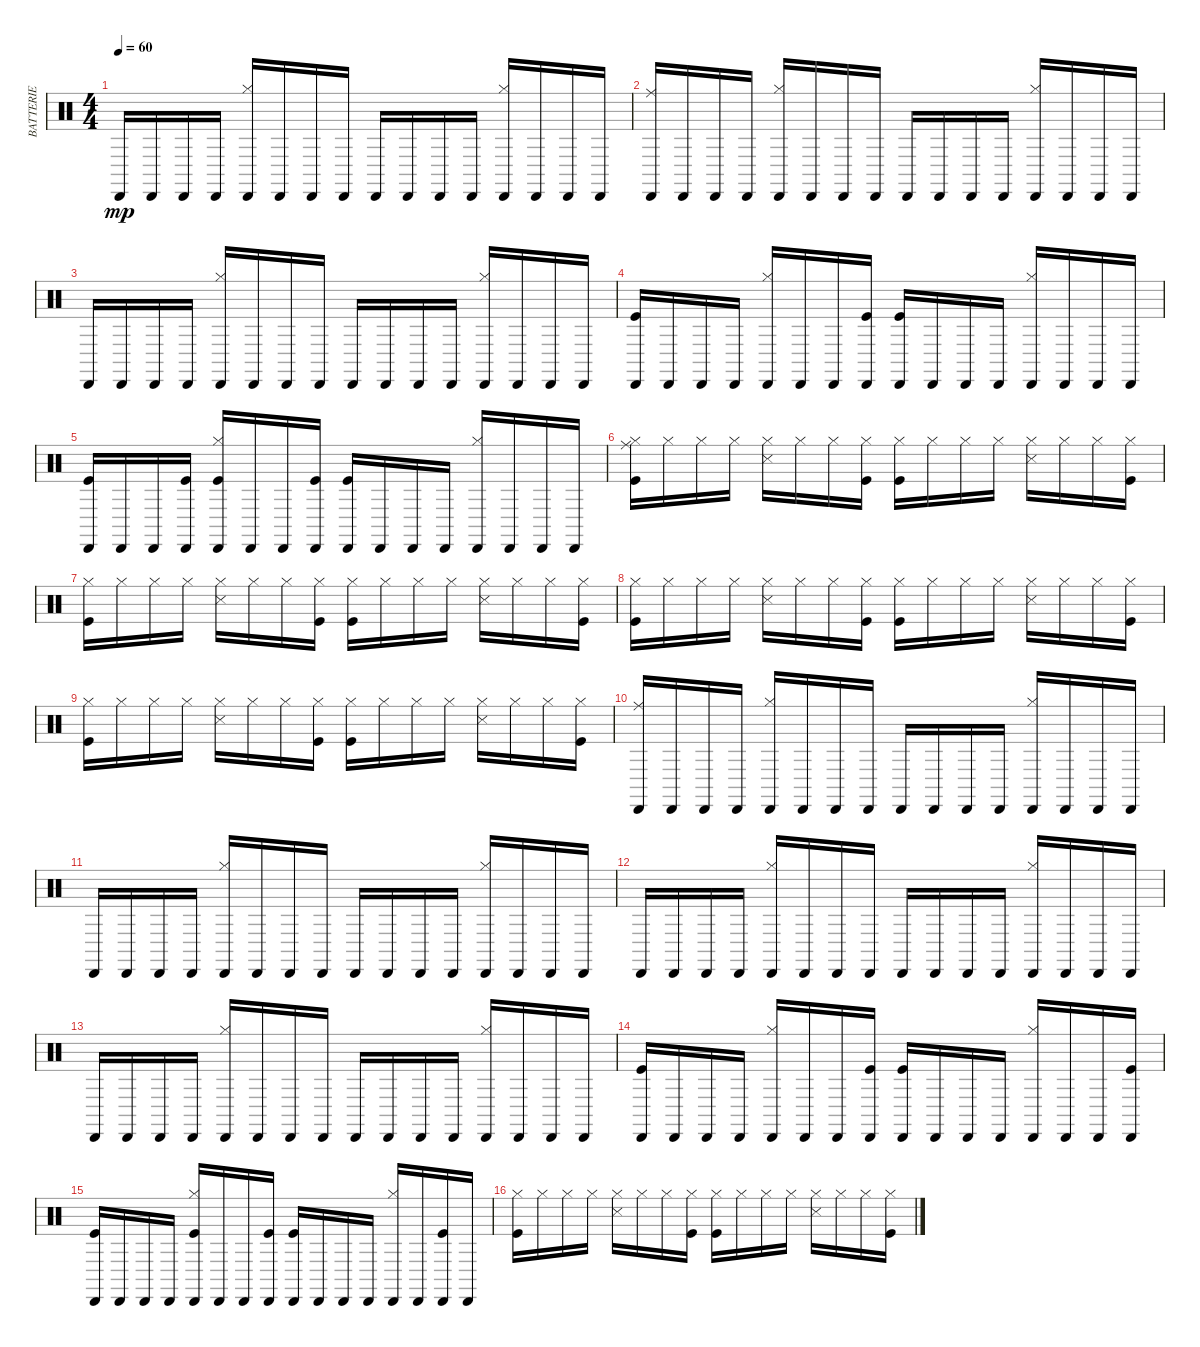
\track ("BATTERIE" "BATTERIE") {instrument percussion}
\staff {score}
\articulation defaults
\ts (4 4)
\tempo 60
\clef neutral
\ks c "Cabasa (hit)".16{dy mp} "Cabasa (hit)".16 "Cabasa (hit)".16 "Cabasa (hit)".16
("Hi-Hat (closed)" "Cabasa (hit)").16 "Cabasa (hit)".16 "Cabasa (hit)".16 "Cabasa (hit)".16 "Cabasa (hit)".16 "Cabasa (hit)".16 "Cabasa (hit)".16 "Cabasa (hit)".16 ("Hi-Hat (closed)" "Cabasa (hit)").16 "Cabasa (hit)".16 "Cabasa (hit)".16 "Cabasa (hit)".16 |
("Cabasa (hit)" "Ride (middle)").16 "Cabasa (hit)".16 "Cabasa (hit)".16 "Cabasa (hit)".16 ("Hi-Hat (closed)" "Cabasa (hit)").16 "Cabasa (hit)".16 "Cabasa (hit)".16 "Cabasa (hit)".16 "Cabasa (hit)".16 "Cabasa (hit)".16 "Cabasa (hit)".16 "Cabasa (hit)".16 ("Hi-Hat (closed)" "Cabasa (hit)").16 "Cabasa (hit)".16 "Cabasa (hit)".16 "Cabasa (hit)".16 |
"Cabasa (hit)".16 "Cabasa (hit)".16 "Cabasa (hit)".16 "Cabasa (hit)".16 ("Hi-Hat (closed)" "Cabasa (hit)").16 "Cabasa (hit)".16 "Cabasa (hit)".16 "Cabasa (hit)".16 "Cabasa (hit)".16 "Cabasa (hit)".16 "Cabasa (hit)".16 "Cabasa (hit)".16 ("Hi-Hat (closed)" "Cabasa (hit)").16 "Cabasa (hit)".16 "Cabasa (hit)".16 "Cabasa (hit)".16 |
("Cabasa (hit)" "Kick (hit)").16 "Cabasa (hit)".16 "Cabasa (hit)".16 "Cabasa (hit)".16 ("Hi-Hat (closed)" "Cabasa (hit)").16 "Cabasa (hit)".16 "Cabasa (hit)".16 ("Cabasa (hit)" "Kick (hit)").16 ("Cabasa (hit)" "Kick (hit)").16 "Cabasa (hit)".16 "Cabasa (hit)".16 "Cabasa (hit)".16 ("Hi-Hat (closed)" "Cabasa (hit)").16 "Cabasa (hit)".16 "Cabasa (hit)".16 "Cabasa (hit)".16 |
("Cabasa (hit)" "Kick (hit)").16 "Cabasa (hit)".16 "Cabasa (hit)".16 ("Cabasa (hit)" "Kick (hit)").16 ("Hi-Hat (closed)" "Cabasa (hit)" "Kick (hit)").16 "Cabasa (hit)".16 "Cabasa (hit)".16 ("Cabasa (hit)" "Kick (hit)").16 ("Cabasa (hit)" "Kick (hit)").16 "Cabasa (hit)".16 "Cabasa (hit)".16 "Cabasa (hit)".16 ("Hi-Hat (closed)" "Cabasa (hit)").16 "Cabasa (hit)".16 "Cabasa (hit)".16 "Cabasa (hit)".16 |
("Hi-Hat (closed)" "Kick (hit)" "Ride (middle)").16 "Hi-Hat (closed)".16 "Hi-Hat (closed)".16 "Hi-Hat (closed)".16 ("Hi-Hat (closed)" "Snare (side stick) 3").16 "Hi-Hat (closed)".16 "Hi-Hat (closed)".16 ("Hi-Hat (closed)" "Kick (hit)").16 ("Hi-Hat (closed)" "Kick (hit)").16 "Hi-Hat (closed)".16 "Hi-Hat (closed)".16 "Hi-Hat (closed)".16 ("Hi-Hat (closed)" "Snare (side stick) 3").16 "Hi-Hat (closed)".16 "Hi-Hat (closed)".16 ("Hi-Hat (closed)" "Kick (hit)").16 |
("Hi-Hat (closed)" "Kick (hit)").16 "Hi-Hat (closed)".16 "Hi-Hat (closed)".16 "Hi-Hat (closed)".16 ("Hi-Hat (closed)" "Snare (side stick) 3").16 "Hi-Hat (closed)".16 "Hi-Hat (closed)".16 ("Hi-Hat (closed)" "Kick (hit)").16 ("Hi-Hat (closed)" "Kick (hit)").16 "Hi-Hat (closed)".16 "Hi-Hat (closed)".16 "Hi-Hat (closed)".16 ("Hi-Hat (closed)" "Snare (side stick) 3").16 "Hi-Hat (closed)".16 "Hi-Hat (closed)".16 ("Hi-Hat (closed)" "Kick (hit)").16 |
("Hi-Hat (closed)" "Kick (hit)").16 "Hi-Hat (closed)".16 "Hi-Hat (closed)".16 "Hi-Hat (closed)".16 ("Hi-Hat (closed)" "Snare (side stick) 3").16 "Hi-Hat (closed)".16 "Hi-Hat (closed)".16 ("Hi-Hat (closed)" "Kick (hit)").16 ("Hi-Hat (closed)" "Kick (hit)").16 "Hi-Hat (closed)".16 "Hi-Hat (closed)".16 "Hi-Hat (closed)".16 ("Hi-Hat (closed)" "Snare (side stick) 3").16 "Hi-Hat (closed)".16 "Hi-Hat (closed)".16 ("Hi-Hat (closed)" "Kick (hit)").16 |
("Hi-Hat (closed)" "Kick (hit)").16 "Hi-Hat (closed)".16 "Hi-Hat (closed)".16 "Hi-Hat (closed)".16 ("Hi-Hat (closed)" "Snare (side stick) 3").16 "Hi-Hat (closed)".16 "Hi-Hat (closed)".16 ("Hi-Hat (closed)" "Kick (hit)").16 ("Hi-Hat (closed)" "Kick (hit)").16 "Hi-Hat (closed)".16 "Hi-Hat (closed)".16 "Hi-Hat (closed)".16 ("Hi-Hat (closed)" "Snare (side stick) 3").16 "Hi-Hat (closed)".16 "Hi-Hat (closed)".16 ("Hi-Hat (closed)" "Kick (hit)").16 |
("Cabasa (hit)" "Ride (middle)").16 "Cabasa (hit)".16 "Cabasa (hit)".16 "Cabasa (hit)".16 ("Hi-Hat (closed)" "Cabasa (hit)").16 "Cabasa (hit)".16 "Cabasa (hit)".16 "Cabasa (hit)".16 "Cabasa (hit)".16 "Cabasa (hit)".16 "Cabasa (hit)".16 "Cabasa (hit)".16 ("Hi-Hat (closed)" "Cabasa (hit)").16 "Cabasa (hit)".16 "Cabasa (hit)".16 "Cabasa (hit)".16 |
"Cabasa (hit)".16 "Cabasa (hit)".16 "Cabasa (hit)".16 "Cabasa (hit)".16 ("Hi-Hat (closed)" "Cabasa (hit)").16 "Cabasa (hit)".16 "Cabasa (hit)".16 "Cabasa (hit)".16 "Cabasa (hit)".16 "Cabasa (hit)".16 "Cabasa (hit)".16 "Cabasa (hit)".16 ("Hi-Hat (closed)" "Cabasa (hit)").16 "Cabasa (hit)".16 "Cabasa (hit)".16 "Cabasa (hit)".16 |
"Cabasa (hit)".16 "Cabasa (hit)".16 "Cabasa (hit)".16 "Cabasa (hit)".16 ("Hi-Hat (closed)" "Cabasa (hit)").16 "Cabasa (hit)".16 "Cabasa (hit)".16 "Cabasa (hit)".16 "Cabasa (hit)".16 "Cabasa (hit)".16 "Cabasa (hit)".16 "Cabasa (hit)".16 ("Hi-Hat (closed)" "Cabasa (hit)").16 "Cabasa (hit)".16 "Cabasa (hit)".16 "Cabasa (hit)".16 |
"Cabasa (hit)".16 "Cabasa (hit)".16 "Cabasa (hit)".16 "Cabasa (hit)".16 ("Hi-Hat (closed)" "Cabasa (hit)").16 "Cabasa (hit)".16 "Cabasa (hit)".16 "Cabasa (hit)".16 "Cabasa (hit)".16 "Cabasa (hit)".16 "Cabasa (hit)".16 "Cabasa (hit)".16 ("Hi-Hat (closed)" "Cabasa (hit)").16 "Cabasa (hit)".16 "Cabasa (hit)".16 "Cabasa (hit)".16 |
("Cabasa (hit)" "Kick (hit)").16 "Cabasa (hit)".16 "Cabasa (hit)".16 "Cabasa (hit)".16 ("Hi-Hat (closed)" "Cabasa (hit)").16 "Cabasa (hit)".16 "Cabasa (hit)".16 ("Cabasa (hit)" "Kick (hit)").16 ("Cabasa (hit)" "Kick (hit)").16 "Cabasa (hit)".16 "Cabasa (hit)".16 "Cabasa (hit)".16 ("Hi-Hat (closed)" "Cabasa (hit)").16 "Cabasa (hit)".16 "Cabasa (hit)".16 ("Cabasa (hit)" "Kick (hit)").16 |
("Cabasa (hit)" "Kick (hit)").16 "Cabasa (hit)".16 "Cabasa (hit)".16 "Cabasa (hit)".16 ("Hi-Hat (closed)" "Cabasa (hit)" "Kick (hit)").16 "Cabasa (hit)".16 "Cabasa (hit)".16 ("Cabasa (hit)" "Kick (hit)").16 ("Cabasa (hit)" "Kick (hit)").16 "Cabasa (hit)".16 "Cabasa (hit)".16 "Cabasa (hit)".16 ("Hi-Hat (closed)" "Cabasa (hit)").16 "Cabasa (hit)".16 ("Cabasa (hit)" "Kick (hit)").16 "Cabasa (hit)".16 |
("Hi-Hat (closed)" "Kick (hit)").16 "Hi-Hat (closed)".16 "Hi-Hat (closed)".16 "Hi-Hat (closed)".16 ("Hi-Hat (closed)" "Snare (side stick) 3").16 "Hi-Hat (closed)".16 "Hi-Hat (closed)".16 ("Hi-Hat (closed)" "Kick (hit)").16 ("Hi-Hat (closed)" "Kick (hit)").16 "Hi-Hat (closed)".16 "Hi-Hat (closed)".16 "Hi-Hat (closed)".16 ("Hi-Hat (closed)" "Snare (side stick) 3").16 "Hi-Hat (closed)".16 "Hi-Hat (closed)".16 ("Hi-Hat (closed)" "Kick (hit)").16
